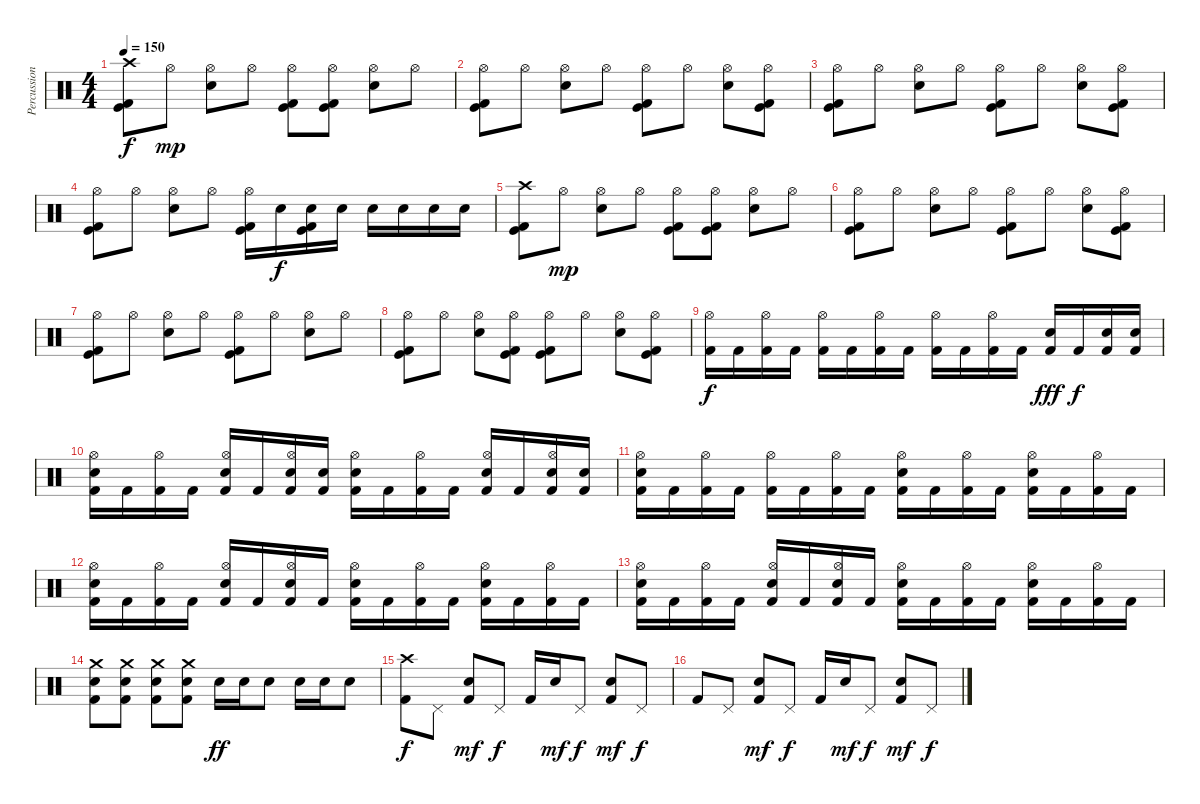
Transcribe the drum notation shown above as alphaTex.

\track ("Percussions" "Percussion") {instrument percussion}
\staff {score}
\articulation defaults
\ts (4 4)
\tempo 150
\clef neutral
\ks c
("Crash high (hit)" "Kick (hit)" "Kick (hit) 2").8{dy f} "Hi-Hat (open)".8{dy mp} ("Hi-Hat (open)" "Electric Snare (hit)").8 "Hi-Hat (open)".8 ("Hi-Hat (open)" "Kick (hit)" "Kick (hit) 2").8 ("Hi-Hat (open)" "Kick (hit)" "Kick (hit) 2").8 ("Hi-Hat (open)" "Electric Snare (hit)").8 "Hi-Hat (open)".8 |
("Hi-Hat (open)" "Kick (hit)" "Kick (hit) 2").8 "Hi-Hat (open)".8 ("Hi-Hat (open)" "Electric Snare (hit)").8 "Hi-Hat (open)".8 ("Hi-Hat (open)" "Kick (hit)" "Kick (hit) 2").8 "Hi-Hat (open)".8 ("Hi-Hat (open)" "Electric Snare (hit)").8 ("Hi-Hat (open)" "Kick (hit)" "Kick (hit) 2").8 |
("Hi-Hat (open)" "Kick (hit)" "Kick (hit) 2").8 "Hi-Hat (open)".8 ("Hi-Hat (open)" "Electric Snare (hit)").8 "Hi-Hat (open)".8 ("Hi-Hat (open)" "Kick (hit)" "Kick (hit) 2").8 "Hi-Hat (open)".8 ("Hi-Hat (open)" "Electric Snare (hit)").8 ("Hi-Hat (open)" "Kick (hit)" "Kick (hit) 2").8 |
("Hi-Hat (open)" "Kick (hit)" "Kick (hit) 2").8 "Hi-Hat (open)".8 ("Hi-Hat (open)" "Electric Snare (hit)").8 "Hi-Hat (open)".8 ("Hi-Hat (open)" "Kick (hit)" "Kick (hit) 2").16 "Electric Snare (hit)".16{dy f} ("Electric Snare (hit)" "Kick (hit)" "Kick (hit) 2").16 "Electric Snare (hit)".16 "Electric Snare (hit)".16 "Electric Snare (hit)".16 "Electric Snare (hit)".16 "Electric Snare (hit)".16 |
("Crash high (hit)" "Kick (hit)" "Kick (hit) 2").8 "Hi-Hat (open)".8{dy mp} ("Hi-Hat (open)" "Electric Snare (hit)").8 "Hi-Hat (open)".8 ("Hi-Hat (open)" "Kick (hit)" "Kick (hit) 2").8 ("Hi-Hat (open)" "Kick (hit)" "Kick (hit) 2").8 ("Hi-Hat (open)" "Electric Snare (hit)").8 "Hi-Hat (open)".8 |
("Hi-Hat (open)" "Kick (hit)" "Kick (hit) 2").8 "Hi-Hat (open)".8 ("Hi-Hat (open)" "Electric Snare (hit)").8 "Hi-Hat (open)".8 ("Hi-Hat (open)" "Kick (hit)" "Kick (hit) 2").8 "Hi-Hat (open)".8 ("Hi-Hat (open)" "Electric Snare (hit)").8 ("Hi-Hat (open)" "Kick (hit)" "Kick (hit) 2").8 |
("Hi-Hat (open)" "Kick (hit)" "Kick (hit) 2").8 "Hi-Hat (open)".8 ("Hi-Hat (open)" "Electric Snare (hit)").8 "Hi-Hat (open)".8 ("Hi-Hat (open)" "Kick (hit)" "Kick (hit) 2").8 "Hi-Hat (open)".8 ("Hi-Hat (open)" "Electric Snare (hit)").8 "Hi-Hat (open)".8 |
("Hi-Hat (open)" "Kick (hit)" "Kick (hit) 2").8 "Hi-Hat (open)".8 ("Hi-Hat (open)" "Electric Snare (hit)").8 ("Hi-Hat (open)" "Kick (hit)" "Kick (hit) 2").8 ("Hi-Hat (open)" "Kick (hit)" "Kick (hit) 2").8 "Hi-Hat (open)".8 ("Hi-Hat (open)" "Electric Snare (hit)").8 ("Hi-Hat (open)" "Kick (hit)" "Kick (hit) 2").8 |
("Hi-Hat (open)" "Kick (hit) 2").16{dy f} "Kick (hit) 2".16 ("Hi-Hat (open)" "Kick (hit) 2").16 "Kick (hit) 2".16 ("Hi-Hat (open)" "Kick (hit) 2").16 "Kick (hit) 2".16 ("Hi-Hat (open)" "Kick (hit) 2").16 "Kick (hit) 2".16 ("Hi-Hat (open)" "Kick (hit) 2").16 "Kick (hit) 2".16 ("Hi-Hat (open)" "Kick (hit) 2").16 "Kick (hit) 2".16 ("Electric Snare (hit)" "Kick (hit) 2").16{dy fff} "Kick (hit) 2".16{dy f} ("Electric Snare (hit)" "Kick (hit) 2").16 ("Electric Snare (hit)" "Kick (hit) 2").16 |
("Hi-Hat (open)" "Electric Snare (hit)" "Kick (hit) 2").16 "Kick (hit) 2".16 ("Hi-Hat (open)" "Kick (hit) 2").16 "Kick (hit) 2".16 ("Hi-Hat (open)" "Electric Snare (hit)" "Kick (hit) 2").16 "Kick (hit) 2".16 ("Hi-Hat (open)" "Electric Snare (hit)" "Kick (hit) 2").16 ("Electric Snare (hit)" "Kick (hit) 2").16 ("Hi-Hat (open)" "Electric Snare (hit)" "Kick (hit) 2").16 "Kick (hit) 2".16 ("Hi-Hat (open)" "Kick (hit) 2").16 "Kick (hit) 2".16 ("Hi-Hat (open)" "Electric Snare (hit)" "Kick (hit) 2").16 "Kick (hit) 2".16 ("Hi-Hat (open)" "Electric Snare (hit)" "Kick (hit) 2").16 ("Electric Snare (hit)" "Kick (hit) 2").16 |
("Hi-Hat (open)" "Electric Snare (hit)" "Kick (hit) 2").16 "Kick (hit) 2".16 ("Hi-Hat (open)" "Kick (hit) 2").16 "Kick (hit) 2".16 ("Hi-Hat (open)" "Kick (hit) 2").16 "Kick (hit) 2".16 ("Hi-Hat (open)" "Kick (hit) 2").16 "Kick (hit) 2".16 ("Hi-Hat (open)" "Electric Snare (hit)" "Kick (hit) 2").16 "Kick (hit) 2".16 ("Hi-Hat (open)" "Kick (hit) 2").16 "Kick (hit) 2".16 ("Hi-Hat (open)" "Electric Snare (hit)" "Kick (hit) 2").16 "Kick (hit) 2".16 ("Hi-Hat (open)" "Kick (hit) 2").16 "Kick (hit) 2".16 |
("Hi-Hat (open)" "Electric Snare (hit)" "Kick (hit) 2").16 "Kick (hit) 2".16 ("Hi-Hat (open)" "Kick (hit) 2").16 "Kick (hit) 2".16 ("Hi-Hat (open)" "Electric Snare (hit)" "Kick (hit) 2").16 "Kick (hit) 2".16 ("Hi-Hat (open)" "Electric Snare (hit)" "Kick (hit) 2").16 "Kick (hit) 2".16 ("Hi-Hat (open)" "Electric Snare (hit)" "Kick (hit) 2").16 "Kick (hit) 2".16 ("Hi-Hat (open)" "Kick (hit) 2").16 "Kick (hit) 2".16 ("Hi-Hat (open)" "Electric Snare (hit)" "Kick (hit) 2").16 "Kick (hit) 2".16 ("Hi-Hat (open)" "Kick (hit) 2").16 "Kick (hit) 2".16 |
("Hi-Hat (open)" "Electric Snare (hit)" "Kick (hit) 2").16 "Kick (hit) 2".16 ("Hi-Hat (open)" "Kick (hit) 2").16 "Kick (hit) 2".16 ("Hi-Hat (open)" "Electric Snare (hit)" "Kick (hit) 2").16 "Kick (hit) 2".16 ("Hi-Hat (open)" "Electric Snare (hit)" "Kick (hit) 2").16 "Kick (hit) 2".16 ("Hi-Hat (open)" "Electric Snare (hit)" "Kick (hit) 2").16 "Kick (hit) 2".16 ("Hi-Hat (open)" "Kick (hit) 2").16 "Kick (hit) 2".16 ("Hi-Hat (open)" "Electric Snare (hit)" "Kick (hit) 2").16 "Kick (hit) 2".16 ("Hi-Hat (open)" "Kick (hit) 2").16 "Kick (hit) 2".16 |
("Crash medium (hit)" "Electric Snare (hit)" "Kick (hit) 2").8 ("Crash medium (hit)" "Electric Snare (hit)" "Kick (hit) 2").8 ("Crash medium (hit)" "Electric Snare (hit)" "Kick (hit) 2").8 ("Crash medium (hit)" "Electric Snare (hit)" "Kick (hit) 2").8 "Electric Snare (hit)".16{dy ff} "Electric Snare (hit)".16 "Electric Snare (hit)".8 "Electric Snare (hit)".16 "Electric Snare (hit)".16 "Electric Snare (hit)".8 |
("Crash high (hit)" "Kick (hit) 2").8{dy f} "Pedal Hi-Hat (hit)".8 ("Electric Snare (hit)" "Kick (hit) 2").8{dy mf} "Pedal Hi-Hat (hit)".8{dy f} "Kick (hit) 2".16 "Electric Snare (hit)".16{dy mf} "Pedal Hi-Hat (hit)".8{dy f} ("Electric Snare (hit)" "Kick (hit) 2").8{dy mf} "Pedal Hi-Hat (hit)".8{dy f} |
"Kick (hit) 2".8 "Pedal Hi-Hat (hit)".8 ("Electric Snare (hit)" "Kick (hit) 2").8{dy mf} "Pedal Hi-Hat (hit)".8{dy f} "Kick (hit) 2".16 "Electric Snare (hit)".16{dy mf} "Pedal Hi-Hat (hit)".8{dy f} ("Electric Snare (hit)" "Kick (hit) 2").8{dy mf} "Pedal Hi-Hat (hit)".8{dy f}
